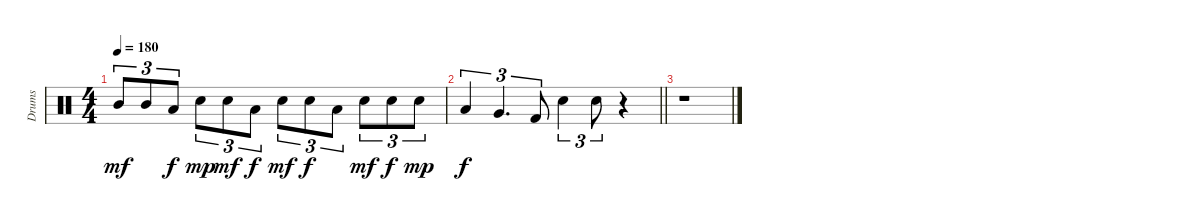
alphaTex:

\track ("Drums" "Drums") {instrument percussion}
\staff {score}
\articulation defaults
\ts (4 4)
\tempo 180
\clef neutral
\ks c "Mid Tom (hit)".8{tu (3 2) dy mf} "Mid Tom (hit)".8{tu (3 2)} "Low Tom (hit)".8{tu (3 2) dy f} "Electric Snare (hit)".8{tu (3 2) dy mp} "Electric Snare (hit)".8{tu (3 2) dy mf} "Low Tom (hit)".8{tu (3 2) dy f} "Electric Snare (hit)".8{tu (3 2) dy mf} "Electric Snare (hit)".8{tu (3 2) dy f} "Low Tom (hit)".8{tu (3 2)} "Electric Snare (hit)".8{tu (3 2) dy mf} "Electric Snare (hit)".8{tu (3 2) dy f} "Electric Snare (hit)".8{tu (3 2) dy mp}
|
\barLineRight lightlight "Low Tom (hit)".4{tu (3 2) dy f} "Very Low Tom (hit)".4{d tu (3 2)} "Kick (hit) 2".8{tu (3 2)} "Electric Snare (hit)".4{tu (3 2)} "Electric Snare (hit)".8{tu (3 2)}
r.4 |
r.1
